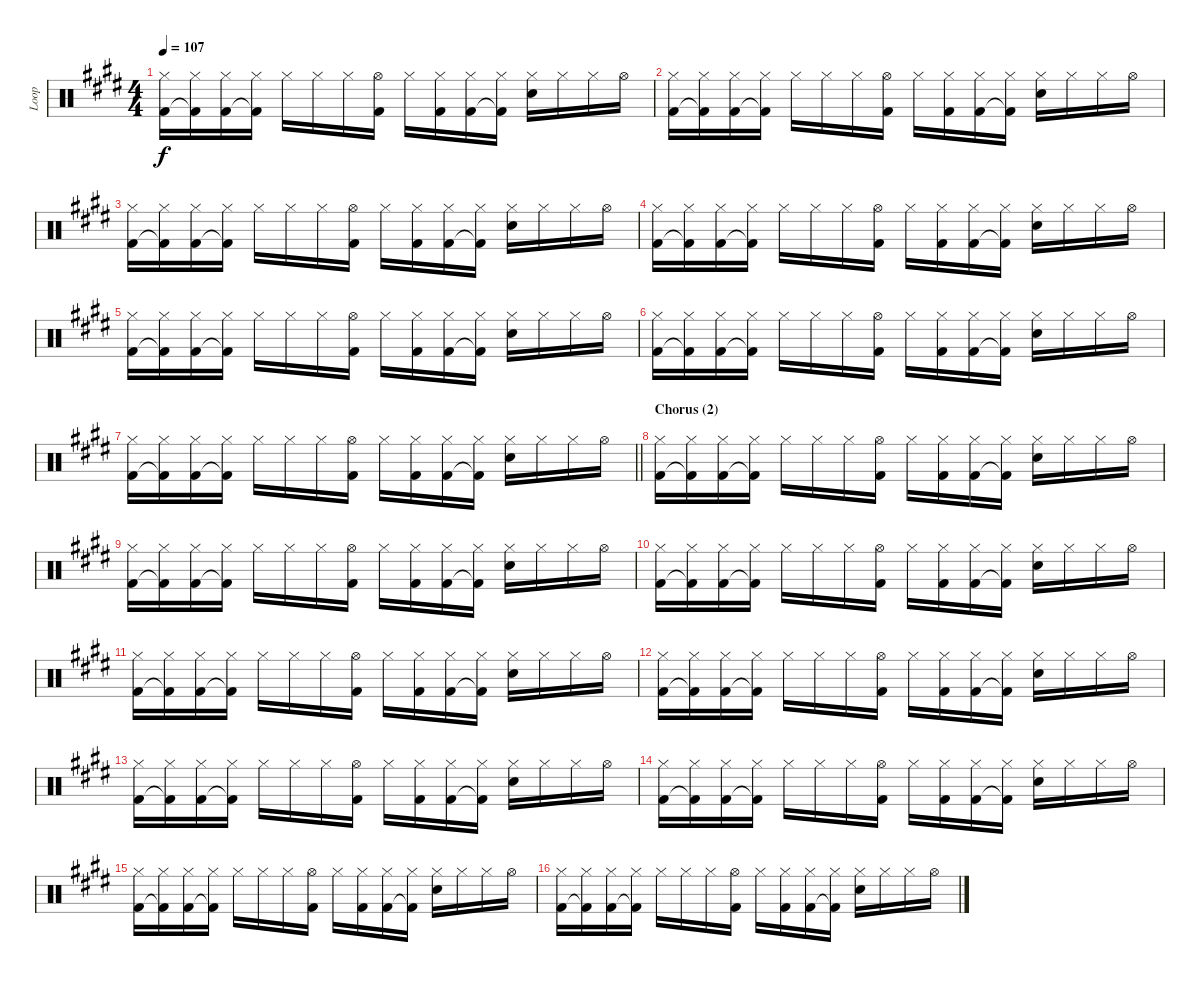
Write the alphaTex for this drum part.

\track ("Loop" "Loop") {instrument percussion}
\staff {score}
\articulation defaults
\ts (4 4)
\tempo 107
\clef neutral
\ks e
("Hi-Hat (closed)" "Kick (hit) 2").16{dy f} ("Hi-Hat (closed)" "Kick (hit) 2"{t}).16 ("Hi-Hat (closed)" "Kick (hit) 2").16 ("Hi-Hat (closed)" "Kick (hit) 2"{t}).16 "Hi-Hat (closed)".16 "Hi-Hat (closed)".16 "Hi-Hat (closed)".16 ("Hi-Hat (open)" "Kick (hit) 2").16 "Hi-Hat (closed)".16 ("Hi-Hat (closed)" "Kick (hit) 2").16 ("Hi-Hat (closed)" "Kick (hit) 2").16 ("Hi-Hat (closed)" "Kick (hit) 2"{t}).16 ("Hi-Hat (closed)" "Electric Snare (hit)").16 "Hi-Hat (closed)".16 "Hi-Hat (closed)".16 "Hi-Hat (open)".16 |
("Hi-Hat (closed)" "Kick (hit) 2").16 ("Hi-Hat (closed)" "Kick (hit) 2"{t}).16 ("Hi-Hat (closed)" "Kick (hit) 2").16 ("Hi-Hat (closed)" "Kick (hit) 2"{t}).16 "Hi-Hat (closed)".16 "Hi-Hat (closed)".16 "Hi-Hat (closed)".16 ("Hi-Hat (open)" "Kick (hit) 2").16 "Hi-Hat (closed)".16 ("Hi-Hat (closed)" "Kick (hit) 2").16 ("Hi-Hat (closed)" "Kick (hit) 2").16 ("Hi-Hat (closed)" "Kick (hit) 2"{t}).16 ("Hi-Hat (closed)" "Electric Snare (hit)").16 "Hi-Hat (closed)".16 "Hi-Hat (closed)".16 "Hi-Hat (open)".16 |
("Hi-Hat (closed)" "Kick (hit) 2").16 ("Hi-Hat (closed)" "Kick (hit) 2"{t}).16 ("Hi-Hat (closed)" "Kick (hit) 2").16 ("Hi-Hat (closed)" "Kick (hit) 2"{t}).16 "Hi-Hat (closed)".16 "Hi-Hat (closed)".16 "Hi-Hat (closed)".16 ("Hi-Hat (open)" "Kick (hit) 2").16 "Hi-Hat (closed)".16 ("Hi-Hat (closed)" "Kick (hit) 2").16 ("Hi-Hat (closed)" "Kick (hit) 2").16 ("Hi-Hat (closed)" "Kick (hit) 2"{t}).16 ("Hi-Hat (closed)" "Electric Snare (hit)").16 "Hi-Hat (closed)".16 "Hi-Hat (closed)".16 "Hi-Hat (open)".16 |
("Hi-Hat (closed)" "Kick (hit) 2").16 ("Hi-Hat (closed)" "Kick (hit) 2"{t}).16 ("Hi-Hat (closed)" "Kick (hit) 2").16 ("Hi-Hat (closed)" "Kick (hit) 2"{t}).16 "Hi-Hat (closed)".16 "Hi-Hat (closed)".16 "Hi-Hat (closed)".16 ("Hi-Hat (open)" "Kick (hit) 2").16 "Hi-Hat (closed)".16 ("Hi-Hat (closed)" "Kick (hit) 2").16 ("Hi-Hat (closed)" "Kick (hit) 2").16 ("Hi-Hat (closed)" "Kick (hit) 2"{t}).16 ("Hi-Hat (closed)" "Electric Snare (hit)").16 "Hi-Hat (closed)".16 "Hi-Hat (closed)".16 "Hi-Hat (open)".16 |
("Hi-Hat (closed)" "Kick (hit) 2").16 ("Hi-Hat (closed)" "Kick (hit) 2"{t}).16 ("Hi-Hat (closed)" "Kick (hit) 2").16 ("Hi-Hat (closed)" "Kick (hit) 2"{t}).16 "Hi-Hat (closed)".16 "Hi-Hat (closed)".16 "Hi-Hat (closed)".16 ("Hi-Hat (open)" "Kick (hit) 2").16 "Hi-Hat (closed)".16 ("Hi-Hat (closed)" "Kick (hit) 2").16 ("Hi-Hat (closed)" "Kick (hit) 2").16 ("Hi-Hat (closed)" "Kick (hit) 2"{t}).16 ("Hi-Hat (closed)" "Electric Snare (hit)").16 "Hi-Hat (closed)".16 "Hi-Hat (closed)".16 "Hi-Hat (open)".16 |
("Hi-Hat (closed)" "Kick (hit) 2").16 ("Hi-Hat (closed)" "Kick (hit) 2"{t}).16 ("Hi-Hat (closed)" "Kick (hit) 2").16 ("Hi-Hat (closed)" "Kick (hit) 2"{t}).16 "Hi-Hat (closed)".16 "Hi-Hat (closed)".16 "Hi-Hat (closed)".16 ("Hi-Hat (open)" "Kick (hit) 2").16 "Hi-Hat (closed)".16 ("Hi-Hat (closed)" "Kick (hit) 2").16 ("Hi-Hat (closed)" "Kick (hit) 2").16 ("Hi-Hat (closed)" "Kick (hit) 2"{t}).16 ("Hi-Hat (closed)" "Electric Snare (hit)").16 "Hi-Hat (closed)".16 "Hi-Hat (closed)".16 "Hi-Hat (open)".16 |
\barLineRight lightlight
("Hi-Hat (closed)" "Kick (hit) 2").16 ("Hi-Hat (closed)" "Kick (hit) 2"{t}).16 ("Hi-Hat (closed)" "Kick (hit) 2").16 ("Hi-Hat (closed)" "Kick (hit) 2"{t}).16 "Hi-Hat (closed)".16 "Hi-Hat (closed)".16 "Hi-Hat (closed)".16 ("Hi-Hat (open)" "Kick (hit) 2").16 "Hi-Hat (closed)".16 ("Hi-Hat (closed)" "Kick (hit) 2").16 ("Hi-Hat (closed)" "Kick (hit) 2").16 ("Hi-Hat (closed)" "Kick (hit) 2"{t}).16 ("Hi-Hat (closed)" "Electric Snare (hit)").16 "Hi-Hat (closed)".16 "Hi-Hat (closed)".16 "Hi-Hat (open)".16 |
\section ("" "Chorus (2)")
("Hi-Hat (closed)" "Kick (hit) 2").16 ("Hi-Hat (closed)" "Kick (hit) 2"{t}).16 ("Hi-Hat (closed)" "Kick (hit) 2").16 ("Hi-Hat (closed)" "Kick (hit) 2"{t}).16 "Hi-Hat (closed)".16 "Hi-Hat (closed)".16 "Hi-Hat (closed)".16 ("Hi-Hat (open)" "Kick (hit) 2").16 "Hi-Hat (closed)".16 ("Hi-Hat (closed)" "Kick (hit) 2").16 ("Hi-Hat (closed)" "Kick (hit) 2").16 ("Hi-Hat (closed)" "Kick (hit) 2"{t}).16 ("Hi-Hat (closed)" "Electric Snare (hit)").16 "Hi-Hat (closed)".16 "Hi-Hat (closed)".16 "Hi-Hat (open)".16 |
("Hi-Hat (closed)" "Kick (hit) 2").16 ("Hi-Hat (closed)" "Kick (hit) 2"{t}).16 ("Hi-Hat (closed)" "Kick (hit) 2").16 ("Hi-Hat (closed)" "Kick (hit) 2"{t}).16 "Hi-Hat (closed)".16 "Hi-Hat (closed)".16 "Hi-Hat (closed)".16 ("Hi-Hat (open)" "Kick (hit) 2").16 "Hi-Hat (closed)".16 ("Hi-Hat (closed)" "Kick (hit) 2").16 ("Hi-Hat (closed)" "Kick (hit) 2").16 ("Hi-Hat (closed)" "Kick (hit) 2"{t}).16 ("Hi-Hat (closed)" "Electric Snare (hit)").16 "Hi-Hat (closed)".16 "Hi-Hat (closed)".16 "Hi-Hat (open)".16 |
("Hi-Hat (closed)" "Kick (hit) 2").16 ("Hi-Hat (closed)" "Kick (hit) 2"{t}).16 ("Hi-Hat (closed)" "Kick (hit) 2").16 ("Hi-Hat (closed)" "Kick (hit) 2"{t}).16 "Hi-Hat (closed)".16 "Hi-Hat (closed)".16 "Hi-Hat (closed)".16 ("Hi-Hat (open)" "Kick (hit) 2").16 "Hi-Hat (closed)".16 ("Hi-Hat (closed)" "Kick (hit) 2").16 ("Hi-Hat (closed)" "Kick (hit) 2").16 ("Hi-Hat (closed)" "Kick (hit) 2"{t}).16 ("Hi-Hat (closed)" "Electric Snare (hit)").16 "Hi-Hat (closed)".16 "Hi-Hat (closed)".16 "Hi-Hat (open)".16 |
("Hi-Hat (closed)" "Kick (hit) 2").16 ("Hi-Hat (closed)" "Kick (hit) 2"{t}).16 ("Hi-Hat (closed)" "Kick (hit) 2").16 ("Hi-Hat (closed)" "Kick (hit) 2"{t}).16 "Hi-Hat (closed)".16 "Hi-Hat (closed)".16 "Hi-Hat (closed)".16 ("Hi-Hat (open)" "Kick (hit) 2").16 "Hi-Hat (closed)".16 ("Hi-Hat (closed)" "Kick (hit) 2").16 ("Hi-Hat (closed)" "Kick (hit) 2").16 ("Hi-Hat (closed)" "Kick (hit) 2"{t}).16 ("Hi-Hat (closed)" "Electric Snare (hit)").16 "Hi-Hat (closed)".16 "Hi-Hat (closed)".16 "Hi-Hat (open)".16 |
("Hi-Hat (closed)" "Kick (hit) 2").16 ("Hi-Hat (closed)" "Kick (hit) 2"{t}).16 ("Hi-Hat (closed)" "Kick (hit) 2").16 ("Hi-Hat (closed)" "Kick (hit) 2"{t}).16 "Hi-Hat (closed)".16 "Hi-Hat (closed)".16 "Hi-Hat (closed)".16 ("Hi-Hat (open)" "Kick (hit) 2").16 "Hi-Hat (closed)".16 ("Hi-Hat (closed)" "Kick (hit) 2").16 ("Hi-Hat (closed)" "Kick (hit) 2").16 ("Hi-Hat (closed)" "Kick (hit) 2"{t}).16 ("Hi-Hat (closed)" "Electric Snare (hit)").16 "Hi-Hat (closed)".16 "Hi-Hat (closed)".16 "Hi-Hat (open)".16 |
("Hi-Hat (closed)" "Kick (hit) 2").16 ("Hi-Hat (closed)" "Kick (hit) 2"{t}).16 ("Hi-Hat (closed)" "Kick (hit) 2").16 ("Hi-Hat (closed)" "Kick (hit) 2"{t}).16 "Hi-Hat (closed)".16 "Hi-Hat (closed)".16 "Hi-Hat (closed)".16 ("Hi-Hat (open)" "Kick (hit) 2").16 "Hi-Hat (closed)".16 ("Hi-Hat (closed)" "Kick (hit) 2").16 ("Hi-Hat (closed)" "Kick (hit) 2").16 ("Hi-Hat (closed)" "Kick (hit) 2"{t}).16 ("Hi-Hat (closed)" "Electric Snare (hit)").16 "Hi-Hat (closed)".16 "Hi-Hat (closed)".16 "Hi-Hat (open)".16 |
("Hi-Hat (closed)" "Kick (hit) 2").16 ("Hi-Hat (closed)" "Kick (hit) 2"{t}).16 ("Hi-Hat (closed)" "Kick (hit) 2").16 ("Hi-Hat (closed)" "Kick (hit) 2"{t}).16 "Hi-Hat (closed)".16 "Hi-Hat (closed)".16 "Hi-Hat (closed)".16 ("Hi-Hat (open)" "Kick (hit) 2").16 "Hi-Hat (closed)".16 ("Hi-Hat (closed)" "Kick (hit) 2").16 ("Hi-Hat (closed)" "Kick (hit) 2").16 ("Hi-Hat (closed)" "Kick (hit) 2"{t}).16 ("Hi-Hat (closed)" "Electric Snare (hit)").16 "Hi-Hat (closed)".16 "Hi-Hat (closed)".16 "Hi-Hat (open)".16 |
("Hi-Hat (closed)" "Kick (hit) 2").16 ("Hi-Hat (closed)" "Kick (hit) 2"{t}).16 ("Hi-Hat (closed)" "Kick (hit) 2").16 ("Hi-Hat (closed)" "Kick (hit) 2"{t}).16 "Hi-Hat (closed)".16 "Hi-Hat (closed)".16 "Hi-Hat (closed)".16 ("Hi-Hat (open)" "Kick (hit) 2").16 "Hi-Hat (closed)".16 ("Hi-Hat (closed)" "Kick (hit) 2").16 ("Hi-Hat (closed)" "Kick (hit) 2").16 ("Hi-Hat (closed)" "Kick (hit) 2"{t}).16 ("Hi-Hat (closed)" "Electric Snare (hit)").16 "Hi-Hat (closed)".16 "Hi-Hat (closed)".16 "Hi-Hat (open)".16 |
("Hi-Hat (closed)" "Kick (hit) 2").16 ("Hi-Hat (closed)" "Kick (hit) 2"{t}).16 ("Hi-Hat (closed)" "Kick (hit) 2").16 ("Hi-Hat (closed)" "Kick (hit) 2"{t}).16 "Hi-Hat (closed)".16 "Hi-Hat (closed)".16 "Hi-Hat (closed)".16 ("Hi-Hat (open)" "Kick (hit) 2").16 "Hi-Hat (closed)".16 ("Hi-Hat (closed)" "Kick (hit) 2").16 ("Hi-Hat (closed)" "Kick (hit) 2").16 ("Hi-Hat (closed)" "Kick (hit) 2"{t}).16 ("Hi-Hat (closed)" "Electric Snare (hit)").16 "Hi-Hat (closed)".16 "Hi-Hat (closed)".16 "Hi-Hat (open)".16
